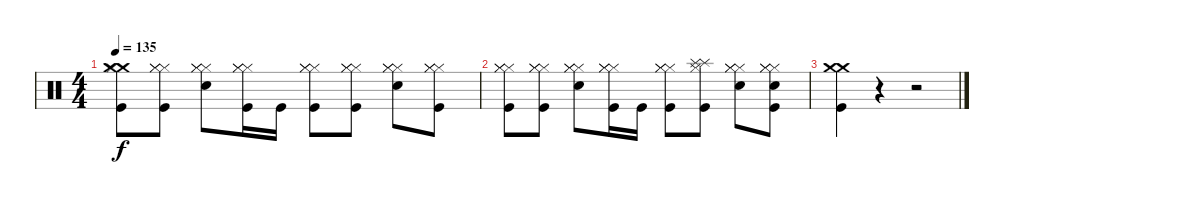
\track "" {instrument percussion}
\staff {score}
\articulation defaults
\ts (4 4)
\tempo 135
\clef neutral
\ks c
("Crash medium (hit)" "Crash medium (hit)" "Hi-Hat (closed)" "Kick (hit)").8{dy f} ("Hi-Hat (closed)" "Hi-Hat (closed)" "Hi-Hat (closed)" "Kick (hit)").8 ("Hi-Hat (closed)" "Hi-Hat (closed)" "Hi-Hat (closed)" "Metronome (bell)").8 ("Hi-Hat (closed)" "Hi-Hat (closed)" "Hi-Hat (closed)" "Kick (hit)").16 "Kick (hit)".16 ("Hi-Hat (closed)" "Hi-Hat (closed)" "Hi-Hat (closed)" "Kick (hit)").8 ("Hi-Hat (closed)" "Hi-Hat (closed)" "Hi-Hat (closed)" "Kick (hit)").8 ("Hi-Hat (closed)" "Hi-Hat (closed)" "Hi-Hat (closed)" "Metronome (bell)").8 ("Hi-Hat (closed)" "Hi-Hat (closed)" "Hi-Hat (closed)" "Kick (hit)").8 |
("Hi-Hat (closed)" "Hi-Hat (closed)" "Hi-Hat (closed)" "Kick (hit)").8 ("Hi-Hat (closed)" "Hi-Hat (closed)" "Hi-Hat (closed)" "Kick (hit)").8 ("Hi-Hat (closed)" "Hi-Hat (closed)" "Hi-Hat (closed)" "Metronome (bell)").8 ("Hi-Hat (closed)" "Hi-Hat (closed)" "Hi-Hat (closed)" "Kick (hit)").16 "Kick (hit)".16 ("Hi-Hat (closed)" "Hi-Hat (closed)" "Hi-Hat (closed)" "Kick (hit)").8 ("Splash (hit)" "Splash (hit)" "Hi-Hat (closed)" "Kick (hit)").8 ("Hi-Hat (closed)" "Hi-Hat (closed)" "Hi-Hat (closed)" "Metronome (bell)").8 ("Hi-Hat (closed)" "Hi-Hat (closed)" "Hi-Hat (closed)" "Metronome (bell)" "Kick (hit)").8 |
("Crash medium (hit)" "Crash medium (hit)" "Kick (hit)").4 r.4 r.2
